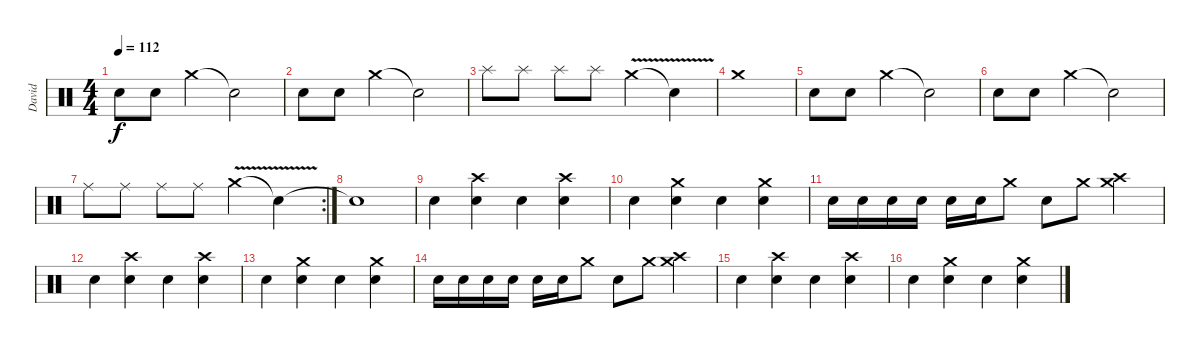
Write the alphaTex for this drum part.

\track ("David" "David") {instrument percussion}
\staff {score}
\articulation defaults
\ts (4 4)
\tempo 112
\clef neutral
\ks c "Snare (hit) 2".8{dy f} "Snare (hit) 2".8 "Crash medium (hit)".4 "Snare (hit)"{t}.2
|
"Snare (hit) 2".8 "Snare (hit) 2".8 "Crash medium (hit)".4 "Snare (hit)"{t}.2 |
"Splash (hit)".8 "Splash (hit)".8 "Splash (hit)".8 "Splash (hit)".8 "Crash medium (hit)"{v}.4 "Snare (hit)"{t}.4 |
"Crash medium (hit)".1 |
"Snare (hit) 2".8 "Snare (hit) 2".8 "Crash medium (hit)".4 "Snare (hit)"{t}.2 |
"Snare (hit) 2".8 "Snare (hit) 2".8 "Crash medium (hit)".4 "Snare (hit)"{t}.2 |
\rc 2 "Ride (middle)".8 "Ride (middle)".8 "Ride (middle)".8 "Ride (middle)".8 "Crash medium (hit)"{v}.4 "Snare (hit)"{t}.4
|
"Snare (hit)"{t}.1 |
"Snare (hit) 2".4 ("Crash high (hit)" "Snare (hit) 2").4 "Snare (hit) 2".4 ("Crash high (hit)" "Snare (hit) 2").4 |
"Snare (hit) 2".4 ("Crash medium (hit)" "Snare (hit) 2").4 "Snare (hit) 2".4 ("Crash medium (hit)" "Snare (hit) 2").4 |
"Snare (hit) 2".16 "Snare (hit) 2".16 "Snare (hit) 2".16 "Snare (hit) 2".16 "Snare (hit) 2".16 "Snare (hit) 2".16 "Crash medium (hit)".8 "Snare (hit) 2".8 "Crash medium (hit)".8 ("Crash medium (hit)" "Crash high (hit)").4 |
"Snare (hit) 2".4 ("Crash high (hit)" "Snare (hit) 2").4 "Snare (hit) 2".4 ("Crash high (hit)" "Snare (hit) 2").4 |
"Snare (hit) 2".4 ("Crash medium (hit)" "Snare (hit) 2").4 "Snare (hit) 2".4 ("Crash medium (hit)" "Snare (hit) 2").4 |
"Snare (hit) 2".16 "Snare (hit) 2".16 "Snare (hit) 2".16 "Snare (hit) 2".16 "Snare (hit) 2".16 "Snare (hit) 2".16 "Crash medium (hit)".8 "Snare (hit) 2".8 "Crash medium (hit)".8 ("Crash medium (hit)" "Crash high (hit)").4 |
"Snare (hit) 2".4 ("Crash high (hit)" "Snare (hit) 2").4 "Snare (hit) 2".4 ("Crash high (hit)" "Snare (hit) 2").4 |
"Snare (hit) 2".4 ("Crash medium (hit)" "Snare (hit) 2").4 "Snare (hit) 2".4 ("Crash medium (hit)" "Snare (hit) 2").4
